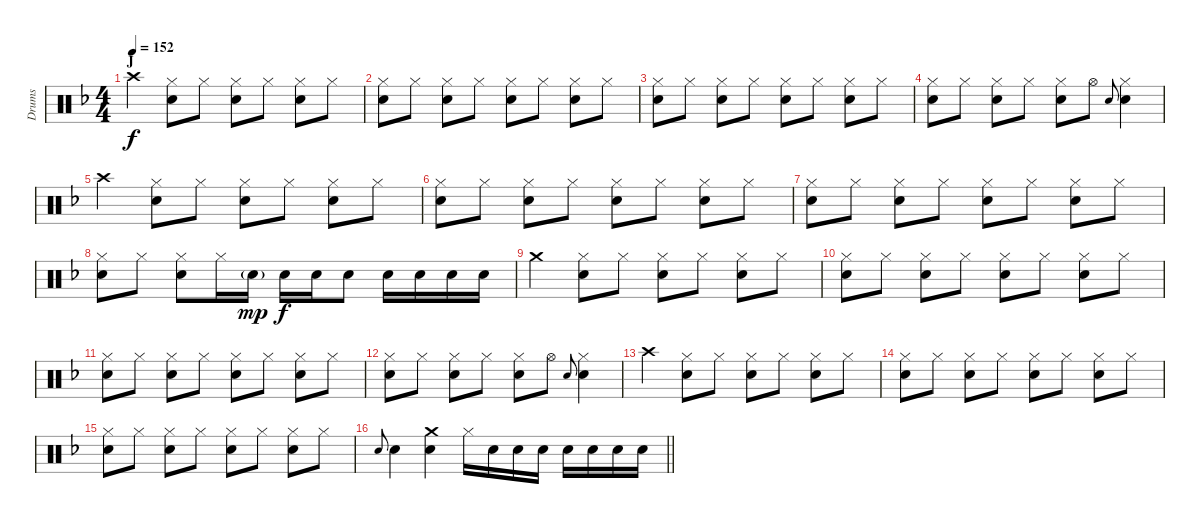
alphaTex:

\track ("Drums" "Drums") {instrument percussion}
\staff {score}
\articulation defaults
\ts (4 4)
\section ("" "J")
\tempo 152
\clef neutral
\ks f "Crash high (hit)".4{dy f}
("Hi-Hat (closed)" "Snare (hit) 2").8 "Hi-Hat (closed)".8 ("Hi-Hat (closed)" "Snare (hit) 2").8 "Hi-Hat (closed)".8 ("Hi-Hat (closed)" "Snare (hit) 2").8 "Hi-Hat (closed)".8 |
("Hi-Hat (closed)" "Snare (hit) 2").8 "Hi-Hat (closed)".8 ("Hi-Hat (closed)" "Snare (hit) 2").8 "Hi-Hat (closed)".8 ("Hi-Hat (closed)" "Snare (hit) 2").8 "Hi-Hat (closed)".8 ("Hi-Hat (closed)" "Snare (hit) 2").8 "Hi-Hat (closed)".8 |
("Hi-Hat (closed)" "Snare (hit) 2").8 "Hi-Hat (closed)".8 ("Hi-Hat (closed)" "Snare (hit) 2").8 "Hi-Hat (closed)".8 ("Hi-Hat (closed)" "Snare (hit) 2").8 "Hi-Hat (closed)".8 ("Hi-Hat (closed)" "Snare (hit) 2").8 "Hi-Hat (closed)".8 |
("Hi-Hat (closed)" "Snare (hit) 2").8 "Hi-Hat (closed)".8 ("Hi-Hat (closed)" "Snare (hit) 2").8 "Hi-Hat (closed)".8 ("Hi-Hat (closed)" "Snare (hit) 2").8 "Hi-Hat (open)".8 "Snare (hit) 2".8{gr onbeat} ("Hi-Hat (closed)" "Snare (hit) 2").4 |
"Crash high (hit)".4 ("Hi-Hat (closed)" "Snare (hit) 2").8 "Hi-Hat (closed)".8 ("Hi-Hat (closed)" "Snare (hit) 2").8 "Hi-Hat (closed)".8 ("Hi-Hat (closed)" "Snare (hit) 2").8 "Hi-Hat (closed)".8 |
("Hi-Hat (closed)" "Snare (hit) 2").8 "Hi-Hat (closed)".8 ("Hi-Hat (closed)" "Snare (hit) 2").8 "Hi-Hat (closed)".8 ("Hi-Hat (closed)" "Snare (hit) 2").8 "Hi-Hat (closed)".8 ("Hi-Hat (closed)" "Snare (hit) 2").8 "Hi-Hat (closed)".8 |
("Hi-Hat (closed)" "Snare (hit) 2").8 "Hi-Hat (closed)".8 ("Hi-Hat (closed)" "Snare (hit) 2").8 "Hi-Hat (closed)".8 ("Hi-Hat (closed)" "Snare (hit) 2").8 "Hi-Hat (closed)".8 ("Hi-Hat (closed)" "Snare (hit) 2").8 "Hi-Hat (closed)".8 |
("Hi-Hat (closed)" "Snare (hit) 2").8 "Hi-Hat (closed)".8 ("Hi-Hat (closed)" "Snare (hit) 2").8 "Hi-Hat (closed)".16 "Snare (hit) 2"{g}.16{dy mp} "Snare (hit) 2".16{dy f} "Snare (hit) 2".16 "Snare (hit) 2".8 "Snare (hit) 2".16 "Snare (hit) 2".16 "Snare (hit) 2".16 "Snare (hit) 2".16 |
"Crash medium (hit)".4 ("Hi-Hat (closed)" "Snare (hit) 2").8 "Hi-Hat (closed)".8 ("Hi-Hat (closed)" "Snare (hit) 2").8 "Hi-Hat (closed)".8 ("Hi-Hat (closed)" "Snare (hit) 2").8 "Hi-Hat (closed)".8 |
("Hi-Hat (closed)" "Snare (hit) 2").8 "Hi-Hat (closed)".8 ("Hi-Hat (closed)" "Snare (hit) 2").8 "Hi-Hat (closed)".8 ("Hi-Hat (closed)" "Snare (hit) 2").8 "Hi-Hat (closed)".8 ("Hi-Hat (closed)" "Snare (hit) 2").8 "Hi-Hat (closed)".8 |
("Hi-Hat (closed)" "Snare (hit) 2").8 "Hi-Hat (closed)".8 ("Hi-Hat (closed)" "Snare (hit) 2").8 "Hi-Hat (closed)".8 ("Hi-Hat (closed)" "Snare (hit) 2").8 "Hi-Hat (closed)".8 ("Hi-Hat (closed)" "Snare (hit) 2").8 "Hi-Hat (closed)".8 |
("Hi-Hat (closed)" "Snare (hit) 2").8 "Hi-Hat (closed)".8 ("Hi-Hat (closed)" "Snare (hit) 2").8 "Hi-Hat (closed)".8 ("Hi-Hat (closed)" "Snare (hit) 2").8 "Hi-Hat (open)".8 "Snare (hit) 2".8{gr onbeat} ("Hi-Hat (closed)" "Snare (hit) 2").4 |
"Crash high (hit)".4 ("Hi-Hat (closed)" "Snare (hit) 2").8 "Hi-Hat (closed)".8 ("Hi-Hat (closed)" "Snare (hit) 2").8 "Hi-Hat (closed)".8 ("Hi-Hat (closed)" "Snare (hit) 2").8 "Hi-Hat (closed)".8 |
("Hi-Hat (closed)" "Snare (hit) 2").8 "Hi-Hat (closed)".8 ("Hi-Hat (closed)" "Snare (hit) 2").8 "Hi-Hat (closed)".8 ("Hi-Hat (closed)" "Snare (hit) 2").8 "Hi-Hat (closed)".8 ("Hi-Hat (closed)" "Snare (hit) 2").8 "Hi-Hat (closed)".8 |
("Hi-Hat (closed)" "Snare (hit) 2").8 "Hi-Hat (closed)".8 ("Hi-Hat (closed)" "Snare (hit) 2").8 "Hi-Hat (closed)".8 ("Hi-Hat (closed)" "Snare (hit) 2").8 "Hi-Hat (closed)".8 ("Hi-Hat (closed)" "Snare (hit) 2").8 "Hi-Hat (closed)".8 |
\barLineRight lightlight "Snare (hit) 2".8{gr onbeat} "Snare (hit) 2".4
("Crash medium (hit)" "Snare (hit) 2").4 "Hi-Hat (closed)".16 "Snare (hit) 2".16 "Snare (hit) 2".16 "Snare (hit) 2".16 "Snare (hit) 2".16 "Snare (hit) 2".16 "Snare (hit) 2".16 "Snare (hit) 2".16
